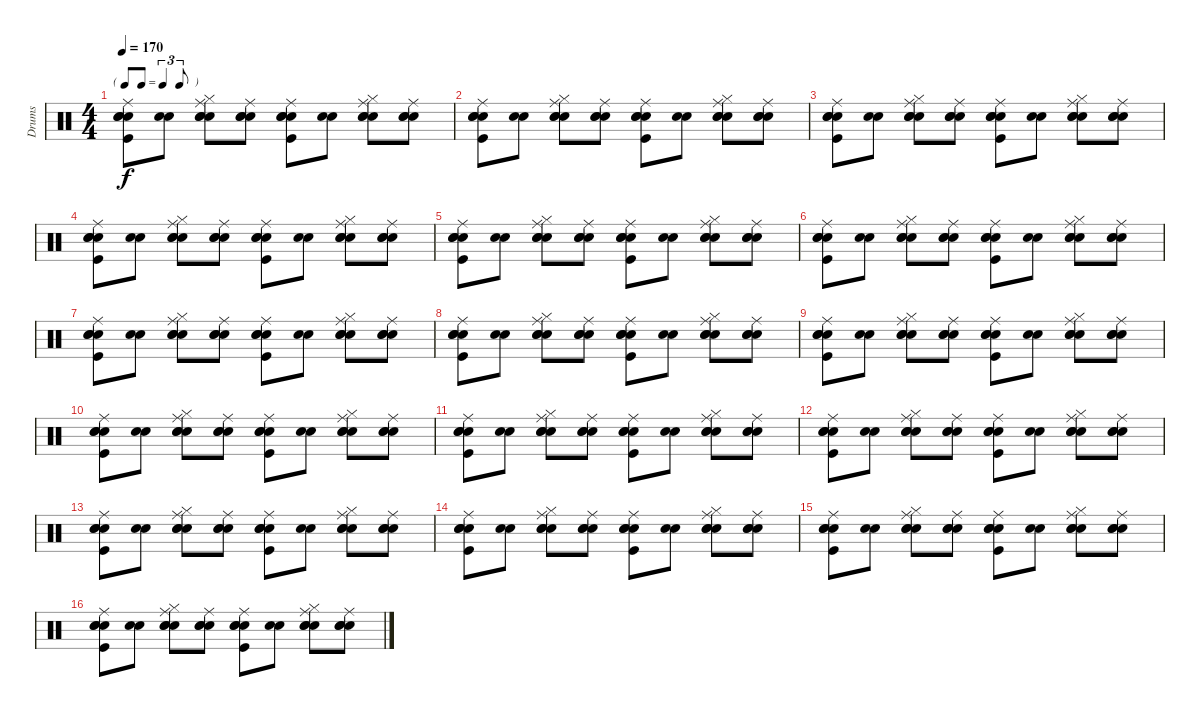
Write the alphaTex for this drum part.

\track ("Drums" "Drums") {instrument percussion}
\staff {score}
\articulation defaults
\ts (4 4)
\tf triplet8th
\tempo 170
\clef neutral
\ks c
("Snare (hit)" "Kick (hit)" "Snare (hit) 2" "Electric Snare (hit)" "Ride (middle)").8{dy f} ("Snare (hit)" "Electric Snare (hit)").8 ("Snare (hit)" "Snare (hit) 2" "Hi-Hat (closed)" "Electric Snare (hit)" "Ride (middle)").8 ("Snare (hit)" "Snare (hit) 2" "Electric Snare (hit)" "Ride (middle)").8 ("Snare (hit)" "Kick (hit)" "Snare (hit) 2" "Electric Snare (hit)" "Ride (middle)").8 ("Snare (hit)" "Electric Snare (hit)").8 ("Snare (hit)" "Snare (hit) 2" "Hi-Hat (closed)" "Electric Snare (hit)" "Ride (middle)").8 ("Snare (hit)" "Snare (hit) 2" "Electric Snare (hit)" "Ride (middle)").8 |
("Snare (hit)" "Kick (hit)" "Snare (hit) 2" "Electric Snare (hit)" "Ride (middle)").8 ("Snare (hit)" "Electric Snare (hit)").8 ("Snare (hit)" "Snare (hit) 2" "Hi-Hat (closed)" "Electric Snare (hit)" "Ride (middle)").8 ("Snare (hit)" "Snare (hit) 2" "Electric Snare (hit)" "Ride (middle)").8 ("Snare (hit)" "Kick (hit)" "Snare (hit) 2" "Electric Snare (hit)" "Ride (middle)").8 ("Snare (hit)" "Electric Snare (hit)").8 ("Snare (hit)" "Snare (hit) 2" "Hi-Hat (closed)" "Electric Snare (hit)" "Ride (middle)").8 ("Snare (hit)" "Snare (hit) 2" "Electric Snare (hit)" "Ride (middle)").8 |
("Snare (hit)" "Kick (hit)" "Snare (hit) 2" "Electric Snare (hit)" "Ride (middle)").8 ("Snare (hit)" "Electric Snare (hit)").8 ("Snare (hit)" "Snare (hit) 2" "Hi-Hat (closed)" "Electric Snare (hit)" "Ride (middle)").8 ("Snare (hit)" "Snare (hit) 2" "Electric Snare (hit)" "Ride (middle)").8 ("Snare (hit)" "Kick (hit)" "Snare (hit) 2" "Electric Snare (hit)" "Ride (middle)").8 ("Snare (hit)" "Electric Snare (hit)").8 ("Snare (hit)" "Snare (hit) 2" "Hi-Hat (closed)" "Electric Snare (hit)" "Ride (middle)").8 ("Snare (hit)" "Snare (hit) 2" "Electric Snare (hit)" "Ride (middle)").8 |
("Snare (hit)" "Kick (hit)" "Snare (hit) 2" "Electric Snare (hit)" "Ride (middle)").8 ("Snare (hit)" "Electric Snare (hit)").8 ("Snare (hit)" "Snare (hit) 2" "Hi-Hat (closed)" "Electric Snare (hit)" "Ride (middle)").8 ("Snare (hit)" "Snare (hit) 2" "Electric Snare (hit)" "Ride (middle)").8 ("Snare (hit)" "Kick (hit)" "Snare (hit) 2" "Electric Snare (hit)" "Ride (middle)").8 ("Snare (hit)" "Electric Snare (hit)").8 ("Snare (hit)" "Snare (hit) 2" "Hi-Hat (closed)" "Electric Snare (hit)" "Ride (middle)").8 ("Snare (hit)" "Snare (hit) 2" "Electric Snare (hit)" "Ride (middle)").8 |
("Snare (hit)" "Kick (hit)" "Snare (hit) 2" "Electric Snare (hit)" "Ride (middle)").8 ("Snare (hit)" "Electric Snare (hit)").8 ("Snare (hit)" "Snare (hit) 2" "Hi-Hat (closed)" "Electric Snare (hit)" "Ride (middle)").8 ("Snare (hit)" "Snare (hit) 2" "Electric Snare (hit)" "Ride (middle)").8 ("Snare (hit)" "Kick (hit)" "Snare (hit) 2" "Electric Snare (hit)" "Ride (middle)").8 ("Snare (hit)" "Electric Snare (hit)").8 ("Snare (hit)" "Snare (hit) 2" "Hi-Hat (closed)" "Electric Snare (hit)" "Ride (middle)").8 ("Snare (hit)" "Snare (hit) 2" "Electric Snare (hit)" "Ride (middle)").8 |
("Snare (hit)" "Kick (hit)" "Snare (hit) 2" "Electric Snare (hit)" "Ride (middle)").8 ("Snare (hit)" "Electric Snare (hit)").8 ("Snare (hit)" "Snare (hit) 2" "Hi-Hat (closed)" "Electric Snare (hit)" "Ride (middle)").8 ("Snare (hit)" "Snare (hit) 2" "Electric Snare (hit)" "Ride (middle)").8 ("Snare (hit)" "Kick (hit)" "Snare (hit) 2" "Electric Snare (hit)" "Ride (middle)").8 ("Snare (hit)" "Electric Snare (hit)").8 ("Snare (hit)" "Snare (hit) 2" "Hi-Hat (closed)" "Electric Snare (hit)" "Ride (middle)").8 ("Snare (hit)" "Snare (hit) 2" "Electric Snare (hit)" "Ride (middle)").8 |
("Snare (hit)" "Kick (hit)" "Snare (hit) 2" "Electric Snare (hit)" "Ride (middle)").8 ("Snare (hit)" "Electric Snare (hit)").8 ("Snare (hit)" "Snare (hit) 2" "Hi-Hat (closed)" "Electric Snare (hit)" "Ride (middle)").8 ("Snare (hit)" "Snare (hit) 2" "Electric Snare (hit)" "Ride (middle)").8 ("Snare (hit)" "Kick (hit)" "Snare (hit) 2" "Electric Snare (hit)" "Ride (middle)").8 ("Snare (hit)" "Electric Snare (hit)").8 ("Snare (hit)" "Snare (hit) 2" "Hi-Hat (closed)" "Electric Snare (hit)" "Ride (middle)").8 ("Snare (hit)" "Snare (hit) 2" "Electric Snare (hit)" "Ride (middle)").8 |
("Snare (hit)" "Kick (hit)" "Snare (hit) 2" "Electric Snare (hit)" "Ride (middle)").8 ("Snare (hit)" "Electric Snare (hit)").8 ("Snare (hit)" "Snare (hit) 2" "Hi-Hat (closed)" "Electric Snare (hit)" "Ride (middle)").8 ("Snare (hit)" "Snare (hit) 2" "Electric Snare (hit)" "Ride (middle)").8 ("Snare (hit)" "Kick (hit)" "Snare (hit) 2" "Electric Snare (hit)" "Ride (middle)").8 ("Snare (hit)" "Electric Snare (hit)").8 ("Snare (hit)" "Snare (hit) 2" "Hi-Hat (closed)" "Electric Snare (hit)" "Ride (middle)").8 ("Snare (hit)" "Snare (hit) 2" "Electric Snare (hit)" "Ride (middle)").8 |
("Snare (hit)" "Kick (hit)" "Snare (hit) 2" "Electric Snare (hit)" "Ride (middle)").8 ("Snare (hit)" "Electric Snare (hit)").8 ("Snare (hit)" "Snare (hit) 2" "Hi-Hat (closed)" "Electric Snare (hit)" "Ride (middle)").8 ("Snare (hit)" "Snare (hit) 2" "Electric Snare (hit)" "Ride (middle)").8 ("Snare (hit)" "Kick (hit)" "Snare (hit) 2" "Electric Snare (hit)" "Ride (middle)").8 ("Snare (hit)" "Electric Snare (hit)").8 ("Snare (hit)" "Snare (hit) 2" "Hi-Hat (closed)" "Electric Snare (hit)" "Ride (middle)").8 ("Snare (hit)" "Snare (hit) 2" "Electric Snare (hit)" "Ride (middle)").8 |
("Snare (hit)" "Kick (hit)" "Snare (hit) 2" "Electric Snare (hit)" "Ride (middle)").8 ("Snare (hit)" "Electric Snare (hit)").8 ("Snare (hit)" "Snare (hit) 2" "Hi-Hat (closed)" "Electric Snare (hit)" "Ride (middle)").8 ("Snare (hit)" "Snare (hit) 2" "Electric Snare (hit)" "Ride (middle)").8 ("Snare (hit)" "Kick (hit)" "Snare (hit) 2" "Electric Snare (hit)" "Ride (middle)").8 ("Snare (hit)" "Electric Snare (hit)").8 ("Snare (hit)" "Snare (hit) 2" "Hi-Hat (closed)" "Electric Snare (hit)" "Ride (middle)").8 ("Snare (hit)" "Snare (hit) 2" "Electric Snare (hit)" "Ride (middle)").8 |
("Snare (hit)" "Kick (hit)" "Snare (hit) 2" "Electric Snare (hit)" "Ride (middle)").8 ("Snare (hit)" "Electric Snare (hit)").8 ("Snare (hit)" "Snare (hit) 2" "Hi-Hat (closed)" "Electric Snare (hit)" "Ride (middle)").8 ("Snare (hit)" "Snare (hit) 2" "Electric Snare (hit)" "Ride (middle)").8 ("Snare (hit)" "Kick (hit)" "Snare (hit) 2" "Electric Snare (hit)" "Ride (middle)").8 ("Snare (hit)" "Electric Snare (hit)").8 ("Snare (hit)" "Snare (hit) 2" "Hi-Hat (closed)" "Electric Snare (hit)" "Ride (middle)").8 ("Snare (hit)" "Snare (hit) 2" "Electric Snare (hit)" "Ride (middle)").8 |
("Snare (hit)" "Kick (hit)" "Snare (hit) 2" "Electric Snare (hit)" "Ride (middle)").8 ("Snare (hit)" "Electric Snare (hit)").8 ("Snare (hit)" "Snare (hit) 2" "Hi-Hat (closed)" "Electric Snare (hit)" "Ride (middle)").8 ("Snare (hit)" "Snare (hit) 2" "Electric Snare (hit)" "Ride (middle)").8 ("Snare (hit)" "Kick (hit)" "Snare (hit) 2" "Electric Snare (hit)" "Ride (middle)").8 ("Snare (hit)" "Electric Snare (hit)").8 ("Snare (hit)" "Snare (hit) 2" "Hi-Hat (closed)" "Electric Snare (hit)" "Ride (middle)").8 ("Snare (hit)" "Snare (hit) 2" "Electric Snare (hit)" "Ride (middle)").8 |
("Snare (hit)" "Kick (hit)" "Snare (hit) 2" "Electric Snare (hit)" "Ride (middle)").8 ("Snare (hit)" "Electric Snare (hit)").8 ("Snare (hit)" "Snare (hit) 2" "Hi-Hat (closed)" "Electric Snare (hit)" "Ride (middle)").8 ("Snare (hit)" "Snare (hit) 2" "Electric Snare (hit)" "Ride (middle)").8 ("Snare (hit)" "Kick (hit)" "Snare (hit) 2" "Electric Snare (hit)" "Ride (middle)").8 ("Snare (hit)" "Electric Snare (hit)").8 ("Snare (hit)" "Snare (hit) 2" "Hi-Hat (closed)" "Electric Snare (hit)" "Ride (middle)").8 ("Snare (hit)" "Snare (hit) 2" "Electric Snare (hit)" "Ride (middle)").8 |
("Snare (hit)" "Kick (hit)" "Snare (hit) 2" "Electric Snare (hit)" "Ride (middle)").8 ("Snare (hit)" "Electric Snare (hit)").8 ("Snare (hit)" "Snare (hit) 2" "Hi-Hat (closed)" "Electric Snare (hit)" "Ride (middle)").8 ("Snare (hit)" "Snare (hit) 2" "Electric Snare (hit)" "Ride (middle)").8 ("Snare (hit)" "Kick (hit)" "Snare (hit) 2" "Electric Snare (hit)" "Ride (middle)").8 ("Snare (hit)" "Electric Snare (hit)").8 ("Snare (hit)" "Snare (hit) 2" "Hi-Hat (closed)" "Electric Snare (hit)" "Ride (middle)").8 ("Snare (hit)" "Snare (hit) 2" "Electric Snare (hit)" "Ride (middle)").8 |
("Snare (hit)" "Kick (hit)" "Snare (hit) 2" "Electric Snare (hit)" "Ride (middle)").8 ("Snare (hit)" "Electric Snare (hit)").8 ("Snare (hit)" "Snare (hit) 2" "Hi-Hat (closed)" "Electric Snare (hit)" "Ride (middle)").8 ("Snare (hit)" "Snare (hit) 2" "Electric Snare (hit)" "Ride (middle)").8 ("Snare (hit)" "Kick (hit)" "Snare (hit) 2" "Electric Snare (hit)" "Ride (middle)").8 ("Snare (hit)" "Electric Snare (hit)").8 ("Snare (hit)" "Snare (hit) 2" "Hi-Hat (closed)" "Electric Snare (hit)" "Ride (middle)").8 ("Snare (hit)" "Snare (hit) 2" "Electric Snare (hit)" "Ride (middle)").8 |
("Snare (hit)" "Kick (hit)" "Snare (hit) 2" "Electric Snare (hit)" "Ride (middle)").8 ("Snare (hit)" "Electric Snare (hit)").8 ("Snare (hit)" "Snare (hit) 2" "Hi-Hat (closed)" "Electric Snare (hit)" "Ride (middle)").8 ("Snare (hit)" "Snare (hit) 2" "Electric Snare (hit)" "Ride (middle)").8 ("Snare (hit)" "Kick (hit)" "Snare (hit) 2" "Electric Snare (hit)" "Ride (middle)").8 ("Snare (hit)" "Electric Snare (hit)").8 ("Snare (hit)" "Snare (hit) 2" "Hi-Hat (closed)" "Electric Snare (hit)" "Ride (middle)").8 ("Snare (hit)" "Snare (hit) 2" "Electric Snare (hit)" "Ride (middle)").8
